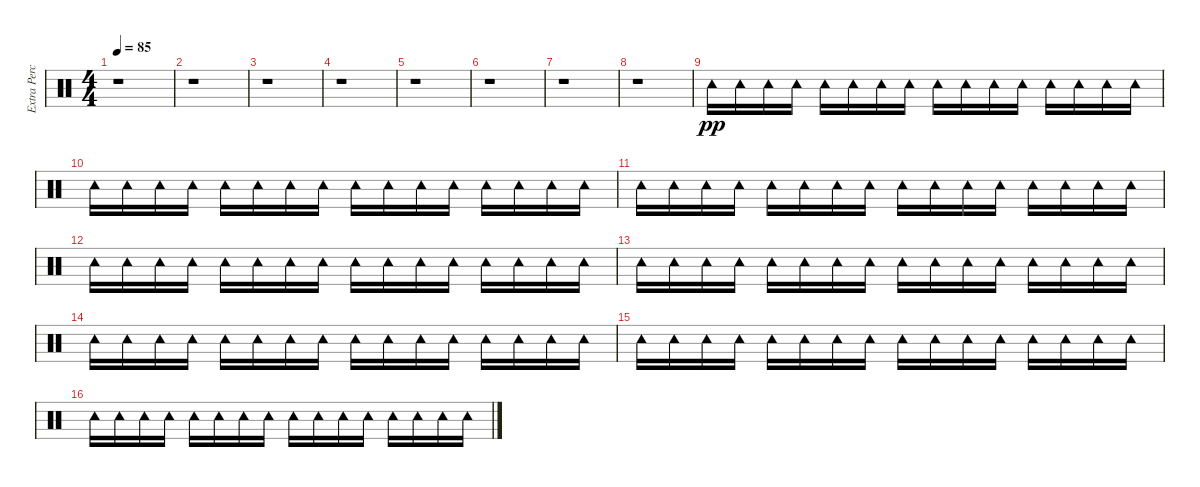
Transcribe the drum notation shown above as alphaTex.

\track ("Extra Percussion" "Extra Perc") {instrument percussion}
\staff {score}
\articulation defaults
\ts (4 4)
\tempo 85
\clef neutral
\ks c
r.1{dy pp} |
r.1 |
r.1 |
r.1 |
r.1 |
r.1 |
r.1 |
r.1 |
"Tambourine (hit)".16 "Tambourine (hit)".16 "Tambourine (hit)".16 "Tambourine (hit)".16 "Tambourine (hit)".16 "Tambourine (hit)".16 "Tambourine (hit)".16 "Tambourine (hit)".16 "Tambourine (hit)".16 "Tambourine (hit)".16 "Tambourine (hit)".16 "Tambourine (hit)".16 "Tambourine (hit)".16 "Tambourine (hit)".16 "Tambourine (hit)".16 "Tambourine (hit)".16 |
"Tambourine (hit)".16 "Tambourine (hit)".16 "Tambourine (hit)".16 "Tambourine (hit)".16 "Tambourine (hit)".16 "Tambourine (hit)".16 "Tambourine (hit)".16 "Tambourine (hit)".16 "Tambourine (hit)".16 "Tambourine (hit)".16 "Tambourine (hit)".16 "Tambourine (hit)".16 "Tambourine (hit)".16 "Tambourine (hit)".16 "Tambourine (hit)".16 "Tambourine (hit)".16 |
"Tambourine (hit)".16 "Tambourine (hit)".16 "Tambourine (hit)".16 "Tambourine (hit)".16 "Tambourine (hit)".16 "Tambourine (hit)".16 "Tambourine (hit)".16 "Tambourine (hit)".16 "Tambourine (hit)".16 "Tambourine (hit)".16 "Tambourine (hit)".16 "Tambourine (hit)".16 "Tambourine (hit)".16 "Tambourine (hit)".16 "Tambourine (hit)".16 "Tambourine (hit)".16 |
"Tambourine (hit)".16 "Tambourine (hit)".16 "Tambourine (hit)".16 "Tambourine (hit)".16 "Tambourine (hit)".16 "Tambourine (hit)".16 "Tambourine (hit)".16 "Tambourine (hit)".16 "Tambourine (hit)".16 "Tambourine (hit)".16 "Tambourine (hit)".16 "Tambourine (hit)".16 "Tambourine (hit)".16 "Tambourine (hit)".16 "Tambourine (hit)".16 "Tambourine (hit)".16 |
"Tambourine (hit)".16 "Tambourine (hit)".16 "Tambourine (hit)".16 "Tambourine (hit)".16 "Tambourine (hit)".16 "Tambourine (hit)".16 "Tambourine (hit)".16 "Tambourine (hit)".16 "Tambourine (hit)".16 "Tambourine (hit)".16 "Tambourine (hit)".16 "Tambourine (hit)".16 "Tambourine (hit)".16 "Tambourine (hit)".16 "Tambourine (hit)".16 "Tambourine (hit)".16 |
"Tambourine (hit)".16 "Tambourine (hit)".16 "Tambourine (hit)".16 "Tambourine (hit)".16 "Tambourine (hit)".16 "Tambourine (hit)".16 "Tambourine (hit)".16 "Tambourine (hit)".16 "Tambourine (hit)".16 "Tambourine (hit)".16 "Tambourine (hit)".16 "Tambourine (hit)".16 "Tambourine (hit)".16 "Tambourine (hit)".16 "Tambourine (hit)".16 "Tambourine (hit)".16 |
"Tambourine (hit)".16 "Tambourine (hit)".16 "Tambourine (hit)".16 "Tambourine (hit)".16 "Tambourine (hit)".16 "Tambourine (hit)".16 "Tambourine (hit)".16 "Tambourine (hit)".16 "Tambourine (hit)".16 "Tambourine (hit)".16 "Tambourine (hit)".16 "Tambourine (hit)".16 "Tambourine (hit)".16 "Tambourine (hit)".16 "Tambourine (hit)".16 "Tambourine (hit)".16 |
"Tambourine (hit)".16 "Tambourine (hit)".16 "Tambourine (hit)".16 "Tambourine (hit)".16 "Tambourine (hit)".16 "Tambourine (hit)".16 "Tambourine (hit)".16 "Tambourine (hit)".16 "Tambourine (hit)".16 "Tambourine (hit)".16 "Tambourine (hit)".16 "Tambourine (hit)".16 "Tambourine (hit)".16 "Tambourine (hit)".16 "Tambourine (hit)".16 "Tambourine (hit)".16
